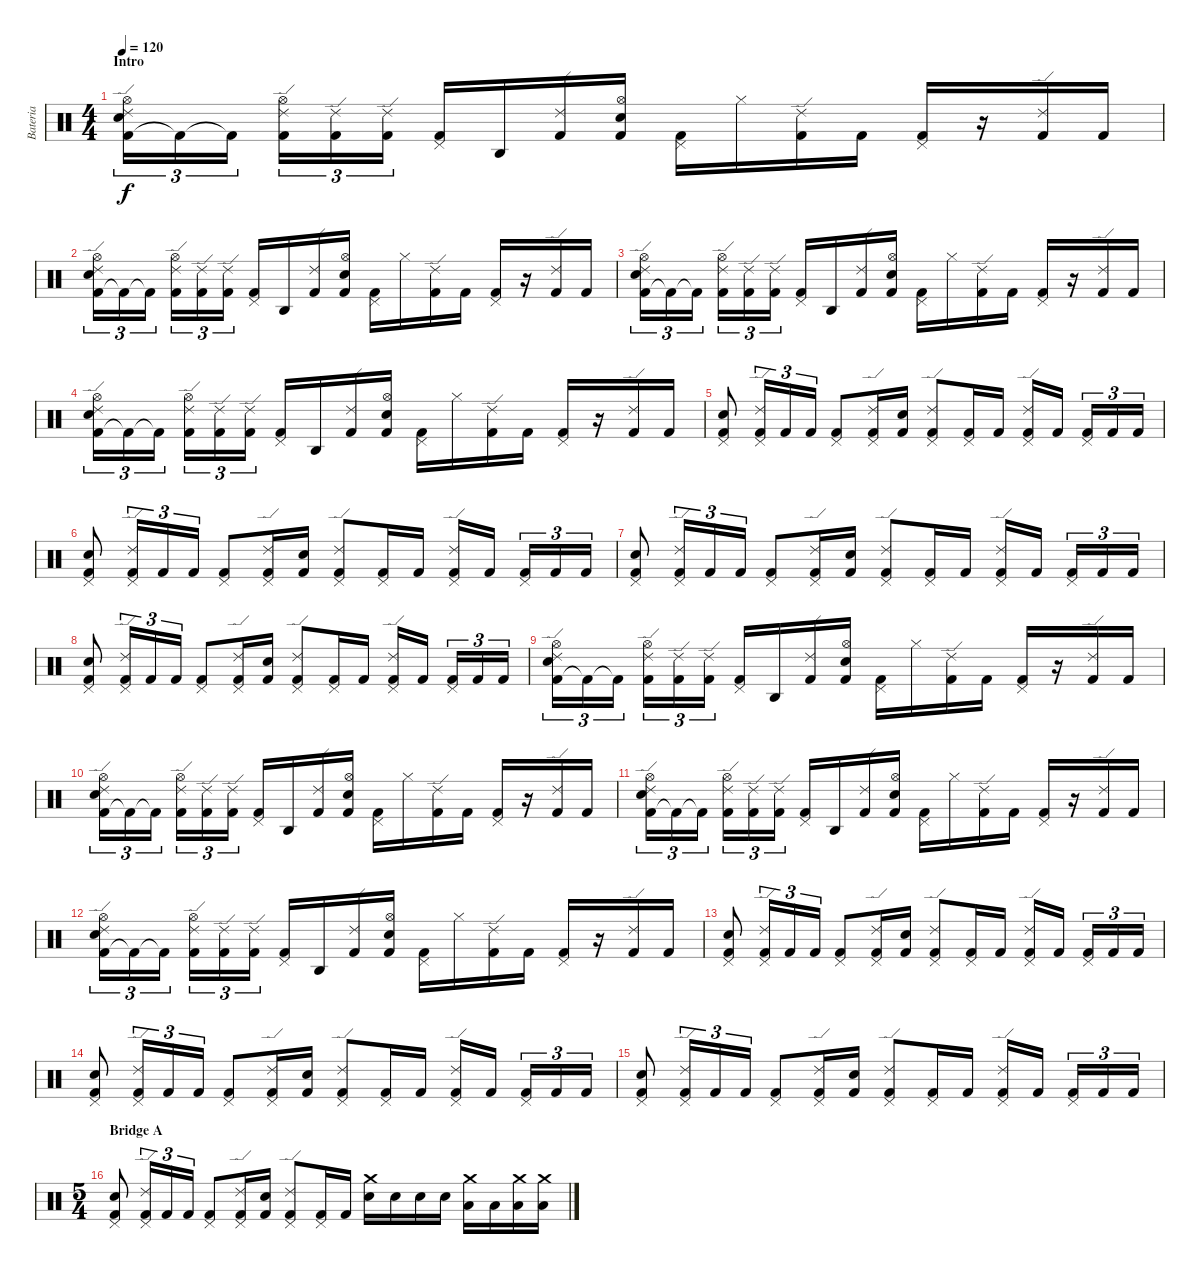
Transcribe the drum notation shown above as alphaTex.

\track ("Bateria" "Bateria") {instrument percussion}
\staff {score}
\articulation defaults
\ts (4 4)
\section ("" "Intro")
\tempo 120
\clef neutral
\ks c
("Kick (hit) 2" "Snare (hit) 2" "Ride (edge) 2" "Hi-Hat (open)").16{tu (3 2) dy f} "Kick (hit) 2"{t}.16{tu (3 2)} "Kick (hit) 2"{t}.16{tu (3 2)} ("Kick (hit) 2" "Ride (edge) 2" "Hi-Hat (open)").16{tu (3 2)} ("Kick (hit) 2" "Ride (edge) 2").16{tu (3 2)} ("Kick (hit) 2" "Ride (edge) 2").16{tu (3 2)} ("Kick (hit) 2" "Pedal Hi-Hat (hit)").16 "Agogo high (hit)".16 ("Kick (hit) 2" "Ride (edge) 2").16 ("Kick (hit) 2" "Snare (hit) 2" "Hi-Hat (open)").16 ("Kick (hit) 2" "Pedal Hi-Hat (hit)").16 "Hi-Hat (closed)".16 ("Kick (hit) 2" "Ride (edge) 2").16 "Kick (hit) 2".16 ("Kick (hit) 2" "Pedal Hi-Hat (hit)").16 r.16 ("Kick (hit) 2" "Ride (edge) 2").16 "Kick (hit) 2".16 |
("Kick (hit) 2" "Snare (hit) 2" "Ride (edge) 2" "Hi-Hat (open)").16{tu (3 2)} "Kick (hit) 2"{t}.16{tu (3 2)} "Kick (hit) 2"{t}.16{tu (3 2)} ("Kick (hit) 2" "Ride (edge) 2" "Hi-Hat (open)").16{tu (3 2)} ("Kick (hit) 2" "Ride (edge) 2").16{tu (3 2)} ("Kick (hit) 2" "Ride (edge) 2").16{tu (3 2)} ("Kick (hit) 2" "Pedal Hi-Hat (hit)").16 "Agogo high (hit)".16 ("Kick (hit) 2" "Ride (edge) 2").16 ("Kick (hit) 2" "Snare (hit) 2" "Hi-Hat (open)").16 ("Kick (hit) 2" "Pedal Hi-Hat (hit)").16 "Hi-Hat (closed)".16 ("Kick (hit) 2" "Ride (edge) 2").16 "Kick (hit) 2".16 ("Kick (hit) 2" "Pedal Hi-Hat (hit)").16 r.16 ("Kick (hit) 2" "Ride (edge) 2").16 "Kick (hit) 2".16 |
("Kick (hit) 2" "Snare (hit) 2" "Ride (edge) 2" "Hi-Hat (open)").16{tu (3 2)} "Kick (hit) 2"{t}.16{tu (3 2)} "Kick (hit) 2"{t}.16{tu (3 2)} ("Kick (hit) 2" "Ride (edge) 2" "Hi-Hat (open)").16{tu (3 2)} ("Kick (hit) 2" "Ride (edge) 2").16{tu (3 2)} ("Kick (hit) 2" "Ride (edge) 2").16{tu (3 2)} ("Kick (hit) 2" "Pedal Hi-Hat (hit)").16 "Agogo high (hit)".16 ("Kick (hit) 2" "Ride (edge) 2").16 ("Kick (hit) 2" "Snare (hit) 2" "Hi-Hat (open)").16 ("Kick (hit) 2" "Pedal Hi-Hat (hit)").16 "Hi-Hat (closed)".16 ("Kick (hit) 2" "Ride (edge) 2").16 "Kick (hit) 2".16 ("Kick (hit) 2" "Pedal Hi-Hat (hit)").16 r.16 ("Kick (hit) 2" "Ride (edge) 2").16 "Kick (hit) 2".16 |
("Kick (hit) 2" "Snare (hit) 2" "Ride (edge) 2" "Hi-Hat (open)").16{tu (3 2)} "Kick (hit) 2"{t}.16{tu (3 2)} "Kick (hit) 2"{t}.16{tu (3 2)} ("Kick (hit) 2" "Ride (edge) 2" "Hi-Hat (open)").16{tu (3 2)} ("Kick (hit) 2" "Ride (edge) 2").16{tu (3 2)} ("Kick (hit) 2" "Ride (edge) 2").16{tu (3 2)} ("Kick (hit) 2" "Pedal Hi-Hat (hit)").16 "Agogo high (hit)".16 ("Kick (hit) 2" "Ride (edge) 2").16 ("Kick (hit) 2" "Snare (hit) 2" "Hi-Hat (open)").16 ("Kick (hit) 2" "Pedal Hi-Hat (hit)").16 "Hi-Hat (closed)".16 ("Kick (hit) 2" "Ride (edge) 2").16 "Kick (hit) 2".16 ("Kick (hit) 2" "Pedal Hi-Hat (hit)").16 r.16 ("Kick (hit) 2" "Ride (edge) 2").16 "Kick (hit) 2".16 |
("Kick (hit) 2" "Snare (hit) 2" "Pedal Hi-Hat (hit)").8 ("Kick (hit) 2" "Pedal Hi-Hat (hit)" "Ride (edge) 2").16{tu (3 2)} "Kick (hit) 2".16{tu (3 2)} "Kick (hit) 2".16{tu (3 2)} ("Kick (hit) 2" "Pedal Hi-Hat (hit)").8 ("Kick (hit) 2" "Pedal Hi-Hat (hit)" "Ride (edge) 2").16 ("Kick (hit) 2" "Snare (hit) 2").16 ("Kick (hit) 2" "Pedal Hi-Hat (hit)" "Ride (edge) 2").8 ("Kick (hit) 2" "Pedal Hi-Hat (hit)").16 "Kick (hit) 2".16 ("Kick (hit) 2" "Pedal Hi-Hat (hit)" "Ride (edge) 2").16 "Kick (hit) 2".16 ("Kick (hit) 2" "Pedal Hi-Hat (hit)").16{tu (3 2)} "Kick (hit) 2".16{tu (3 2)} "Kick (hit) 2".16{tu (3 2)} |
("Kick (hit) 2" "Snare (hit) 2" "Pedal Hi-Hat (hit)").8 ("Kick (hit) 2" "Pedal Hi-Hat (hit)" "Ride (edge) 2").16{tu (3 2)} "Kick (hit) 2".16{tu (3 2)} "Kick (hit) 2".16{tu (3 2)} ("Kick (hit) 2" "Pedal Hi-Hat (hit)").8 ("Kick (hit) 2" "Pedal Hi-Hat (hit)" "Ride (edge) 2").16 ("Kick (hit) 2" "Snare (hit) 2").16 ("Kick (hit) 2" "Pedal Hi-Hat (hit)" "Ride (edge) 2").8 ("Kick (hit) 2" "Pedal Hi-Hat (hit)").16 "Kick (hit) 2".16 ("Kick (hit) 2" "Pedal Hi-Hat (hit)" "Ride (edge) 2").16 "Kick (hit) 2".16 ("Kick (hit) 2" "Pedal Hi-Hat (hit)").16{tu (3 2)} "Kick (hit) 2".16{tu (3 2)} "Kick (hit) 2".16{tu (3 2)} |
("Kick (hit) 2" "Snare (hit) 2" "Pedal Hi-Hat (hit)").8 ("Kick (hit) 2" "Pedal Hi-Hat (hit)" "Ride (edge) 2").16{tu (3 2)} "Kick (hit) 2".16{tu (3 2)} "Kick (hit) 2".16{tu (3 2)} ("Kick (hit) 2" "Pedal Hi-Hat (hit)").8 ("Kick (hit) 2" "Pedal Hi-Hat (hit)" "Ride (edge) 2").16 ("Kick (hit) 2" "Snare (hit) 2").16 ("Kick (hit) 2" "Pedal Hi-Hat (hit)" "Ride (edge) 2").8 ("Kick (hit) 2" "Pedal Hi-Hat (hit)").16 "Kick (hit) 2".16 ("Kick (hit) 2" "Pedal Hi-Hat (hit)" "Ride (edge) 2").16 "Kick (hit) 2".16 ("Kick (hit) 2" "Pedal Hi-Hat (hit)").16{tu (3 2)} "Kick (hit) 2".16{tu (3 2)} "Kick (hit) 2".16{tu (3 2)} |
("Kick (hit) 2" "Snare (hit) 2" "Pedal Hi-Hat (hit)").8 ("Kick (hit) 2" "Pedal Hi-Hat (hit)" "Ride (edge) 2").16{tu (3 2)} "Kick (hit) 2".16{tu (3 2)} "Kick (hit) 2".16{tu (3 2)} ("Kick (hit) 2" "Pedal Hi-Hat (hit)").8 ("Kick (hit) 2" "Pedal Hi-Hat (hit)" "Ride (edge) 2").16 ("Kick (hit) 2" "Snare (hit) 2").16 ("Kick (hit) 2" "Pedal Hi-Hat (hit)" "Ride (edge) 2").8 ("Kick (hit) 2" "Pedal Hi-Hat (hit)").16 "Kick (hit) 2".16 ("Kick (hit) 2" "Pedal Hi-Hat (hit)" "Ride (edge) 2").16 "Kick (hit) 2".16 ("Kick (hit) 2" "Pedal Hi-Hat (hit)").16{tu (3 2)} "Kick (hit) 2".16{tu (3 2)} "Kick (hit) 2".16{tu (3 2)} |
("Kick (hit) 2" "Snare (hit) 2" "Ride (edge) 2" "Hi-Hat (open)").16{tu (3 2)} "Kick (hit) 2"{t}.16{tu (3 2)} "Kick (hit) 2"{t}.16{tu (3 2)} ("Kick (hit) 2" "Ride (edge) 2" "Hi-Hat (open)").16{tu (3 2)} ("Kick (hit) 2" "Ride (edge) 2").16{tu (3 2)} ("Kick (hit) 2" "Ride (edge) 2").16{tu (3 2)} ("Kick (hit) 2" "Pedal Hi-Hat (hit)").16 "Agogo high (hit)".16 ("Kick (hit) 2" "Ride (edge) 2").16 ("Kick (hit) 2" "Snare (hit) 2" "Hi-Hat (open)").16 ("Kick (hit) 2" "Pedal Hi-Hat (hit)").16 "Hi-Hat (closed)".16 ("Kick (hit) 2" "Ride (edge) 2").16 "Kick (hit) 2".16 ("Kick (hit) 2" "Pedal Hi-Hat (hit)").16 r.16 ("Kick (hit) 2" "Ride (edge) 2").16 "Kick (hit) 2".16 |
("Kick (hit) 2" "Snare (hit) 2" "Ride (edge) 2" "Hi-Hat (open)").16{tu (3 2)} "Kick (hit) 2"{t}.16{tu (3 2)} "Kick (hit) 2"{t}.16{tu (3 2)} ("Kick (hit) 2" "Ride (edge) 2" "Hi-Hat (open)").16{tu (3 2)} ("Kick (hit) 2" "Ride (edge) 2").16{tu (3 2)} ("Kick (hit) 2" "Ride (edge) 2").16{tu (3 2)} ("Kick (hit) 2" "Pedal Hi-Hat (hit)").16 "Agogo high (hit)".16 ("Kick (hit) 2" "Ride (edge) 2").16 ("Kick (hit) 2" "Snare (hit) 2" "Hi-Hat (open)").16 ("Kick (hit) 2" "Pedal Hi-Hat (hit)").16 "Hi-Hat (closed)".16 ("Kick (hit) 2" "Ride (edge) 2").16 "Kick (hit) 2".16 ("Kick (hit) 2" "Pedal Hi-Hat (hit)").16 r.16 ("Kick (hit) 2" "Ride (edge) 2").16 "Kick (hit) 2".16 |
("Kick (hit) 2" "Snare (hit) 2" "Ride (edge) 2" "Hi-Hat (open)").16{tu (3 2)} "Kick (hit) 2"{t}.16{tu (3 2)} "Kick (hit) 2"{t}.16{tu (3 2)} ("Kick (hit) 2" "Ride (edge) 2" "Hi-Hat (open)").16{tu (3 2)} ("Kick (hit) 2" "Ride (edge) 2").16{tu (3 2)} ("Kick (hit) 2" "Ride (edge) 2").16{tu (3 2)} ("Kick (hit) 2" "Pedal Hi-Hat (hit)").16 "Agogo high (hit)".16 ("Kick (hit) 2" "Ride (edge) 2").16 ("Kick (hit) 2" "Snare (hit) 2" "Hi-Hat (open)").16 ("Kick (hit) 2" "Pedal Hi-Hat (hit)").16 "Hi-Hat (closed)".16 ("Kick (hit) 2" "Ride (edge) 2").16 "Kick (hit) 2".16 ("Kick (hit) 2" "Pedal Hi-Hat (hit)").16 r.16 ("Kick (hit) 2" "Ride (edge) 2").16 "Kick (hit) 2".16 |
("Kick (hit) 2" "Snare (hit) 2" "Ride (edge) 2" "Hi-Hat (open)").16{tu (3 2)} "Kick (hit) 2"{t}.16{tu (3 2)} "Kick (hit) 2"{t}.16{tu (3 2)} ("Kick (hit) 2" "Ride (edge) 2" "Hi-Hat (open)").16{tu (3 2)} ("Kick (hit) 2" "Ride (edge) 2").16{tu (3 2)} ("Kick (hit) 2" "Ride (edge) 2").16{tu (3 2)} ("Kick (hit) 2" "Pedal Hi-Hat (hit)").16 "Agogo high (hit)".16 ("Kick (hit) 2" "Ride (edge) 2").16 ("Kick (hit) 2" "Snare (hit) 2" "Hi-Hat (open)").16 ("Kick (hit) 2" "Pedal Hi-Hat (hit)").16 "Hi-Hat (closed)".16 ("Kick (hit) 2" "Ride (edge) 2").16 "Kick (hit) 2".16 ("Kick (hit) 2" "Pedal Hi-Hat (hit)").16 r.16 ("Kick (hit) 2" "Ride (edge) 2").16 "Kick (hit) 2".16 |
("Kick (hit) 2" "Snare (hit) 2" "Pedal Hi-Hat (hit)").8 ("Kick (hit) 2" "Pedal Hi-Hat (hit)" "Ride (edge) 2").16{tu (3 2)} "Kick (hit) 2".16{tu (3 2)} "Kick (hit) 2".16{tu (3 2)} ("Kick (hit) 2" "Pedal Hi-Hat (hit)").8 ("Kick (hit) 2" "Pedal Hi-Hat (hit)" "Ride (edge) 2").16 ("Kick (hit) 2" "Snare (hit) 2").16 ("Kick (hit) 2" "Pedal Hi-Hat (hit)" "Ride (edge) 2").8 ("Kick (hit) 2" "Pedal Hi-Hat (hit)").16 "Kick (hit) 2".16 ("Kick (hit) 2" "Pedal Hi-Hat (hit)" "Ride (edge) 2").16 "Kick (hit) 2".16 ("Kick (hit) 2" "Pedal Hi-Hat (hit)").16{tu (3 2)} "Kick (hit) 2".16{tu (3 2)} "Kick (hit) 2".16{tu (3 2)} |
("Kick (hit) 2" "Snare (hit) 2" "Pedal Hi-Hat (hit)").8 ("Kick (hit) 2" "Pedal Hi-Hat (hit)" "Ride (edge) 2").16{tu (3 2)} "Kick (hit) 2".16{tu (3 2)} "Kick (hit) 2".16{tu (3 2)} ("Kick (hit) 2" "Pedal Hi-Hat (hit)").8 ("Kick (hit) 2" "Pedal Hi-Hat (hit)" "Ride (edge) 2").16 ("Kick (hit) 2" "Snare (hit) 2").16 ("Kick (hit) 2" "Pedal Hi-Hat (hit)" "Ride (edge) 2").8 ("Kick (hit) 2" "Pedal Hi-Hat (hit)").16 "Kick (hit) 2".16 ("Kick (hit) 2" "Pedal Hi-Hat (hit)" "Ride (edge) 2").16 "Kick (hit) 2".16 ("Kick (hit) 2" "Pedal Hi-Hat (hit)").16{tu (3 2)} "Kick (hit) 2".16{tu (3 2)} "Kick (hit) 2".16{tu (3 2)} |
("Kick (hit) 2" "Snare (hit) 2" "Pedal Hi-Hat (hit)").8 ("Kick (hit) 2" "Pedal Hi-Hat (hit)" "Ride (edge) 2").16{tu (3 2)} "Kick (hit) 2".16{tu (3 2)} "Kick (hit) 2".16{tu (3 2)} ("Kick (hit) 2" "Pedal Hi-Hat (hit)").8 ("Kick (hit) 2" "Pedal Hi-Hat (hit)" "Ride (edge) 2").16 ("Kick (hit) 2" "Snare (hit) 2").16 ("Kick (hit) 2" "Pedal Hi-Hat (hit)" "Ride (edge) 2").8 ("Kick (hit) 2" "Pedal Hi-Hat (hit)").16 "Kick (hit) 2".16 ("Kick (hit) 2" "Pedal Hi-Hat (hit)" "Ride (edge) 2").16 "Kick (hit) 2".16 ("Kick (hit) 2" "Pedal Hi-Hat (hit)").16{tu (3 2)} "Kick (hit) 2".16{tu (3 2)} "Kick (hit) 2".16{tu (3 2)} |
\ts (5 4)
\section ("" "Bridge A")
("Kick (hit) 2" "Snare (hit) 2" "Pedal Hi-Hat (hit)").8 ("Kick (hit) 2" "Pedal Hi-Hat (hit)" "Ride (edge) 2").16{tu (3 2)} "Kick (hit) 2".16{tu (3 2)} "Kick (hit) 2".16{tu (3 2)} ("Kick (hit) 2" "Pedal Hi-Hat (hit)").8 ("Kick (hit) 2" "Pedal Hi-Hat (hit)" "Ride (edge) 2").16 ("Kick (hit) 2" "Snare (hit) 2").16 ("Kick (hit) 2" "Pedal Hi-Hat (hit)" "Ride (edge) 2").8 ("Kick (hit) 2" "Pedal Hi-Hat (hit)").16 "Kick (hit) 2".16 ("Snare (hit) 2" "Crash medium (hit)").16 "Snare (hit) 2".16 "Snare (hit) 2".16 "Snare (hit) 2".16 ("Low Tom (hit)" "Crash medium (hit)").16 "Low Tom (hit)".16 ("Low Tom (hit)" "Crash medium (hit)").16 ("Low Tom (hit)" "Crash medium (hit)").16
